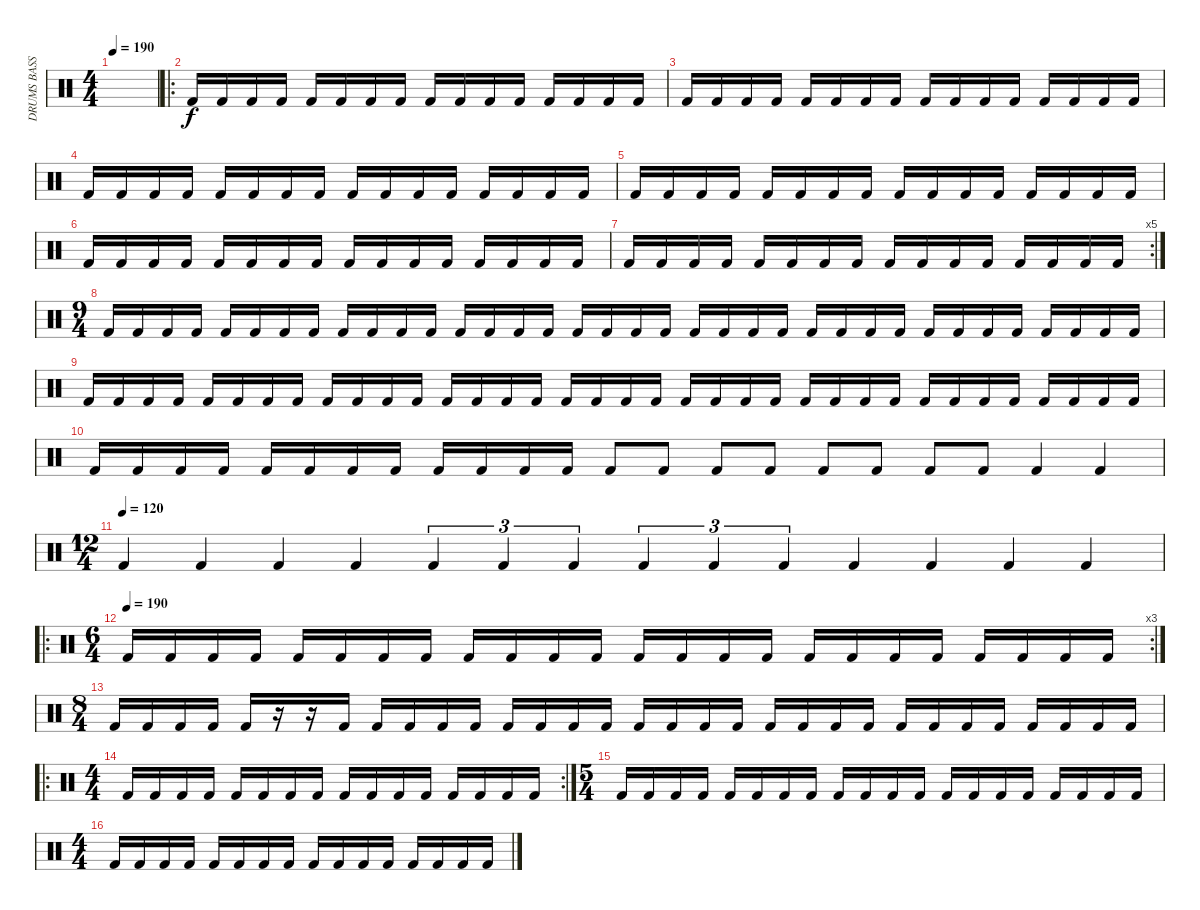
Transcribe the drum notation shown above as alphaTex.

\track ("DRUMS BASS" "DRUMS BASS") {instrument percussion}
\staff {score}
\articulation defaults
\ts (4 4)
\tempo 190
\clef neutral
\ks c
|
\ro "Kick (hit) 2".16 "Kick (hit) 2".16 "Kick (hit) 2".16 "Kick (hit) 2".16 "Kick (hit) 2".16 "Kick (hit) 2".16 "Kick (hit) 2".16 "Kick (hit) 2".16 "Kick (hit) 2".16 "Kick (hit) 2".16 "Kick (hit) 2".16 "Kick (hit) 2".16 "Kick (hit) 2".16 "Kick (hit) 2".16 "Kick (hit) 2".16 "Kick (hit) 2".16
|
"Kick (hit) 2".16 "Kick (hit) 2".16 "Kick (hit) 2".16 "Kick (hit) 2".16 "Kick (hit) 2".16 "Kick (hit) 2".16 "Kick (hit) 2".16 "Kick (hit) 2".16 "Kick (hit) 2".16 "Kick (hit) 2".16 "Kick (hit) 2".16 "Kick (hit) 2".16 "Kick (hit) 2".16 "Kick (hit) 2".16 "Kick (hit) 2".16 "Kick (hit) 2".16 |
"Kick (hit) 2".16 "Kick (hit) 2".16 "Kick (hit) 2".16 "Kick (hit) 2".16 "Kick (hit) 2".16 "Kick (hit) 2".16 "Kick (hit) 2".16 "Kick (hit) 2".16 "Kick (hit) 2".16 "Kick (hit) 2".16 "Kick (hit) 2".16 "Kick (hit) 2".16 "Kick (hit) 2".16 "Kick (hit) 2".16 "Kick (hit) 2".16 "Kick (hit) 2".16 |
"Kick (hit) 2".16 "Kick (hit) 2".16 "Kick (hit) 2".16 "Kick (hit) 2".16 "Kick (hit) 2".16 "Kick (hit) 2".16 "Kick (hit) 2".16 "Kick (hit) 2".16 "Kick (hit) 2".16 "Kick (hit) 2".16 "Kick (hit) 2".16 "Kick (hit) 2".16 "Kick (hit) 2".16 "Kick (hit) 2".16 "Kick (hit) 2".16 "Kick (hit) 2".16 |
"Kick (hit) 2".16 "Kick (hit) 2".16 "Kick (hit) 2".16 "Kick (hit) 2".16 "Kick (hit) 2".16 "Kick (hit) 2".16 "Kick (hit) 2".16 "Kick (hit) 2".16 "Kick (hit) 2".16 "Kick (hit) 2".16 "Kick (hit) 2".16 "Kick (hit) 2".16 "Kick (hit) 2".16 "Kick (hit) 2".16 "Kick (hit) 2".16 "Kick (hit) 2".16 |
\rc 5 "Kick (hit) 2".16 "Kick (hit) 2".16 "Kick (hit) 2".16 "Kick (hit) 2".16 "Kick (hit) 2".16 "Kick (hit) 2".16 "Kick (hit) 2".16 "Kick (hit) 2".16 "Kick (hit) 2".16 "Kick (hit) 2".16 "Kick (hit) 2".16 "Kick (hit) 2".16 "Kick (hit) 2".16 "Kick (hit) 2".16 "Kick (hit) 2".16 "Kick (hit) 2".16
|
\ts (9 4)
"Kick (hit) 2".16 "Kick (hit) 2".16 "Kick (hit) 2".16 "Kick (hit) 2".16 "Kick (hit) 2".16 "Kick (hit) 2".16 "Kick (hit) 2".16 "Kick (hit) 2".16 "Kick (hit) 2".16 "Kick (hit) 2".16 "Kick (hit) 2".16 "Kick (hit) 2".16 "Kick (hit) 2".16 "Kick (hit) 2".16 "Kick (hit) 2".16 "Kick (hit) 2".16 "Kick (hit) 2".16 "Kick (hit) 2".16 "Kick (hit) 2".16 "Kick (hit) 2".16 "Kick (hit) 2".16 "Kick (hit) 2".16 "Kick (hit) 2".16 "Kick (hit) 2".16 "Kick (hit) 2".16 "Kick (hit) 2".16 "Kick (hit) 2".16 "Kick (hit) 2".16 "Kick (hit) 2".16 "Kick (hit) 2".16 "Kick (hit) 2".16 "Kick (hit) 2".16 "Kick (hit) 2".16 "Kick (hit) 2".16 "Kick (hit) 2".16 "Kick (hit) 2".16 |
"Kick (hit) 2".16 "Kick (hit) 2".16 "Kick (hit) 2".16 "Kick (hit) 2".16 "Kick (hit) 2".16 "Kick (hit) 2".16 "Kick (hit) 2".16 "Kick (hit) 2".16 "Kick (hit) 2".16 "Kick (hit) 2".16 "Kick (hit) 2".16 "Kick (hit) 2".16 "Kick (hit) 2".16 "Kick (hit) 2".16 "Kick (hit) 2".16 "Kick (hit) 2".16 "Kick (hit) 2".16 "Kick (hit) 2".16 "Kick (hit) 2".16 "Kick (hit) 2".16 "Kick (hit) 2".16 "Kick (hit) 2".16 "Kick (hit) 2".16 "Kick (hit) 2".16 "Kick (hit) 2".16 "Kick (hit) 2".16 "Kick (hit) 2".16 "Kick (hit) 2".16 "Kick (hit) 2".16 "Kick (hit) 2".16 "Kick (hit) 2".16 "Kick (hit) 2".16 "Kick (hit) 2".16 "Kick (hit) 2".16 "Kick (hit) 2".16 "Kick (hit) 2".16 |
"Kick (hit) 2".16 "Kick (hit) 2".16 "Kick (hit) 2".16 "Kick (hit) 2".16 "Kick (hit) 2".16 "Kick (hit) 2".16 "Kick (hit) 2".16 "Kick (hit) 2".16 "Kick (hit) 2".16 "Kick (hit) 2".16 "Kick (hit) 2".16 "Kick (hit) 2".16 "Kick (hit) 2".8 "Kick (hit) 2".8 "Kick (hit) 2".8 "Kick (hit) 2".8 "Kick (hit) 2".8 "Kick (hit) 2".8 "Kick (hit) 2".8 "Kick (hit) 2".8 "Kick (hit) 2".4 "Kick (hit) 2".4 |
\ts (12 4)
\tempo (120)
"Kick (hit) 2".4{dy f} "Kick (hit) 2".4 "Kick (hit) 2".4 "Kick (hit) 2".4 "Kick (hit) 2".4{tu (3 2)} "Kick (hit) 2".4{tu (3 2)} "Kick (hit) 2".4{tu (3 2)} "Kick (hit) 2".4{tu (3 2)} "Kick (hit) 2".4{tu (3 2)} "Kick (hit) 2".4{tu (3 2)} "Kick (hit) 2".4 "Kick (hit) 2".4 "Kick (hit) 2".4 "Kick (hit) 2".4 |
\ro
\rc 3
\ts (6 4)
\tempo (190)
"Kick (hit) 2".16 "Kick (hit) 2".16 "Kick (hit) 2".16 "Kick (hit) 2".16 "Kick (hit) 2".16 "Kick (hit) 2".16 "Kick (hit) 2".16 "Kick (hit) 2".16 "Kick (hit) 2".16 "Kick (hit) 2".16 "Kick (hit) 2".16 "Kick (hit) 2".16 "Kick (hit) 2".16 "Kick (hit) 2".16 "Kick (hit) 2".16 "Kick (hit) 2".16 "Kick (hit) 2".16 "Kick (hit) 2".16 "Kick (hit) 2".16 "Kick (hit) 2".16 "Kick (hit) 2".16 "Kick (hit) 2".16 "Kick (hit) 2".16 "Kick (hit) 2".16 |
\ts (8 4)
"Kick (hit) 2".16 "Kick (hit) 2".16 "Kick (hit) 2".16 "Kick (hit) 2".16 "Kick (hit) 2".16 r.16 r.16 "Kick (hit) 2".16 "Kick (hit) 2".16 "Kick (hit) 2".16 "Kick (hit) 2".16 "Kick (hit) 2".16 "Kick (hit) 2".16 "Kick (hit) 2".16 "Kick (hit) 2".16 "Kick (hit) 2".16 "Kick (hit) 2".16 "Kick (hit) 2".16 "Kick (hit) 2".16 "Kick (hit) 2".16 "Kick (hit) 2".16 "Kick (hit) 2".16 "Kick (hit) 2".16 "Kick (hit) 2".16 "Kick (hit) 2".16 "Kick (hit) 2".16 "Kick (hit) 2".16 "Kick (hit) 2".16 "Kick (hit) 2".16 "Kick (hit) 2".16 "Kick (hit) 2".16 "Kick (hit) 2".16 |
\ro
\rc 2
\ts (4 4)
"Kick (hit) 2".16 "Kick (hit) 2".16 "Kick (hit) 2".16 "Kick (hit) 2".16 "Kick (hit) 2".16 "Kick (hit) 2".16 "Kick (hit) 2".16 "Kick (hit) 2".16 "Kick (hit) 2".16 "Kick (hit) 2".16 "Kick (hit) 2".16 "Kick (hit) 2".16 "Kick (hit) 2".16 "Kick (hit) 2".16 "Kick (hit) 2".16 "Kick (hit) 2".16 |
\ts (5 4)
"Kick (hit) 2".16 "Kick (hit) 2".16 "Kick (hit) 2".16 "Kick (hit) 2".16 "Kick (hit) 2".16 "Kick (hit) 2".16 "Kick (hit) 2".16 "Kick (hit) 2".16 "Kick (hit) 2".16 "Kick (hit) 2".16 "Kick (hit) 2".16 "Kick (hit) 2".16 "Kick (hit) 2".16 "Kick (hit) 2".16 "Kick (hit) 2".16 "Kick (hit) 2".16 "Kick (hit) 2".16 "Kick (hit) 2".16 "Kick (hit) 2".16 "Kick (hit) 2".16 |
\ts (4 4)
"Kick (hit) 2".16 "Kick (hit) 2".16 "Kick (hit) 2".16 "Kick (hit) 2".16 "Kick (hit) 2".16 "Kick (hit) 2".16 "Kick (hit) 2".16 "Kick (hit) 2".16 "Kick (hit) 2".16 "Kick (hit) 2".16 "Kick (hit) 2".16 "Kick (hit) 2".16 "Kick (hit) 2".16 "Kick (hit) 2".16 "Kick (hit) 2".16 "Kick (hit) 2".16
